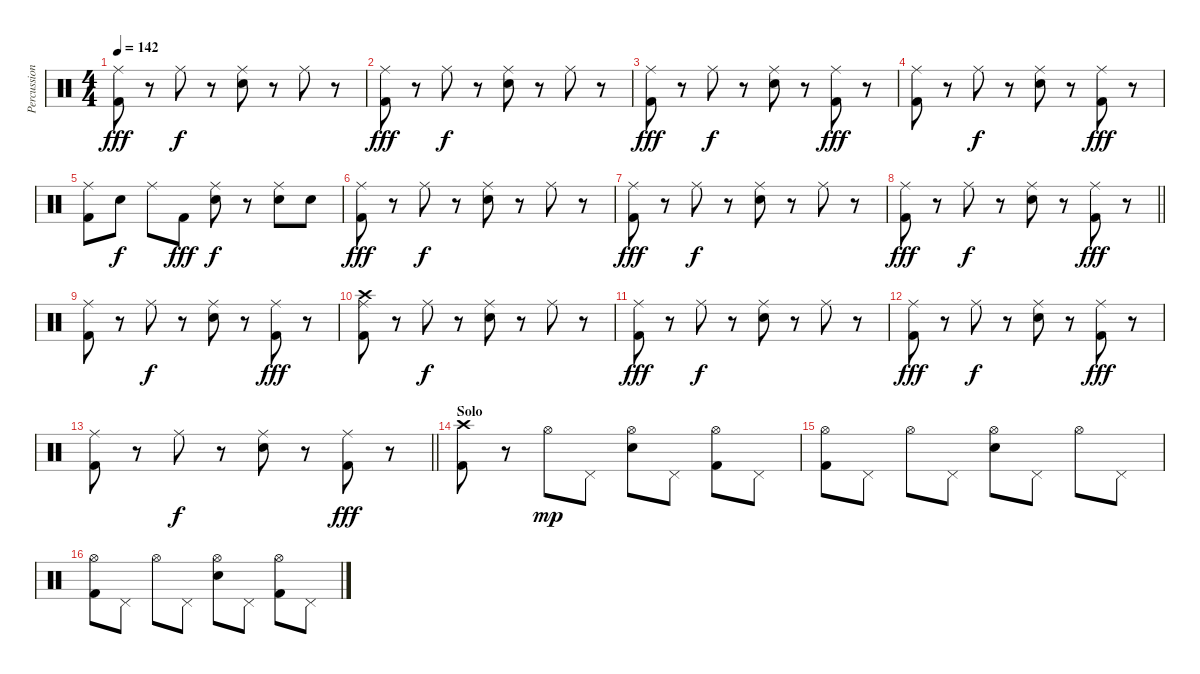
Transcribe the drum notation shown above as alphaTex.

\track ("Percussion" "Percussion") {instrument percussion}
\staff {score}
\articulation defaults
\ts (4 4)
\tempo 142
\clef neutral
\ks c
("Kick (hit) 2" "Ride (middle)").8{dy fff} r.8 "Ride (middle)".8{dy f} r.8 ("Electric Snare (hit)" "Ride (middle)").8 r.8 "Ride (middle)".8 r.8 |
("Kick (hit) 2" "Ride (middle)").8{dy fff} r.8 "Ride (middle)".8{dy f} r.8 ("Electric Snare (hit)" "Ride (middle)").8 r.8 "Ride (middle)".8 r.8 |
("Kick (hit) 2" "Ride (middle)").8{dy fff} r.8 "Ride (middle)".8{dy f} r.8 ("Electric Snare (hit)" "Ride (middle)").8 r.8 ("Kick (hit) 2" "Ride (middle)").8{dy fff} r.8 |
("Kick (hit) 2" "Ride (middle)").8 r.8 "Ride (middle)".8{dy f} r.8 ("Electric Snare (hit)" "Ride (middle)").8 r.8 ("Kick (hit) 2" "Ride (middle)").8{dy fff} r.8 |
("Kick (hit) 2" "Ride (middle)").8 "Electric Snare (hit)".8{dy f} "Ride (middle)".8 "Kick (hit) 2".8{dy fff} ("Electric Snare (hit)" "Ride (middle)").8{dy f} r.8 ("Electric Snare (hit)" "Ride (middle)").8 "Electric Snare (hit)".8 |
("Kick (hit) 2" "Ride (middle)").8{dy fff} r.8 "Ride (middle)".8{dy f} r.8 ("Electric Snare (hit)" "Ride (middle)").8 r.8 "Ride (middle)".8 r.8 |
("Kick (hit) 2" "Ride (middle)").8{dy fff} r.8 "Ride (middle)".8{dy f} r.8 ("Electric Snare (hit)" "Ride (middle)").8 r.8 "Ride (middle)".8 r.8 |
\barLineRight lightlight
("Kick (hit) 2" "Ride (middle)").8{dy fff} r.8 "Ride (middle)".8{dy f} r.8 ("Electric Snare (hit)" "Ride (middle)").8 r.8 ("Kick (hit) 2" "Ride (middle)").8{dy fff} r.8 |
("Kick (hit) 2" "Ride (middle)").8 r.8 "Ride (middle)".8{dy f} r.8 ("Electric Snare (hit)" "Ride (middle)").8 r.8 ("Kick (hit) 2" "Ride (middle)").8{dy fff} r.8 |
("Kick (hit) 2" "Ride (middle)" "Crash high (hit)").8 r.8 "Ride (middle)".8{dy f} r.8 ("Electric Snare (hit)" "Ride (middle)").8 r.8 "Ride (middle)".8 r.8 |
("Kick (hit) 2" "Ride (middle)").8{dy fff} r.8 "Ride (middle)".8{dy f} r.8 ("Electric Snare (hit)" "Ride (middle)").8 r.8 "Ride (middle)".8 r.8 |
("Kick (hit) 2" "Ride (middle)").8{dy fff} r.8 "Ride (middle)".8{dy f} r.8 ("Electric Snare (hit)" "Ride (middle)").8 r.8 ("Kick (hit) 2" "Ride (middle)").8{dy fff} r.8 |
\barLineRight lightlight
("Kick (hit) 2" "Ride (middle)").8 r.8 "Ride (middle)".8{dy f} r.8 ("Electric Snare (hit)" "Ride (middle)").8 r.8 ("Kick (hit) 2" "Ride (middle)").8{dy fff} r.8 |
\section ("" "Solo")
("Kick (hit) 2" "Crash high (hit)").8 r.8 "Hi-Hat (open)".8{dy mp} "Pedal Hi-Hat (hit)".8 ("Electric Snare (hit)" "Hi-Hat (open)").8 "Pedal Hi-Hat (hit)".8 ("Kick (hit) 2" "Hi-Hat (open)").8 "Pedal Hi-Hat (hit)".8 |
("Kick (hit) 2" "Hi-Hat (open)").8 "Pedal Hi-Hat (hit)".8 "Hi-Hat (open)".8 "Pedal Hi-Hat (hit)".8 ("Electric Snare (hit)" "Hi-Hat (open)").8 "Pedal Hi-Hat (hit)".8 "Hi-Hat (open)".8 "Pedal Hi-Hat (hit)".8 |
("Kick (hit) 2" "Hi-Hat (open)").8 "Pedal Hi-Hat (hit)".8 "Hi-Hat (open)".8 "Pedal Hi-Hat (hit)".8 ("Electric Snare (hit)" "Hi-Hat (open)").8 "Pedal Hi-Hat (hit)".8 ("Kick (hit) 2" "Hi-Hat (open)").8 "Pedal Hi-Hat (hit)".8
